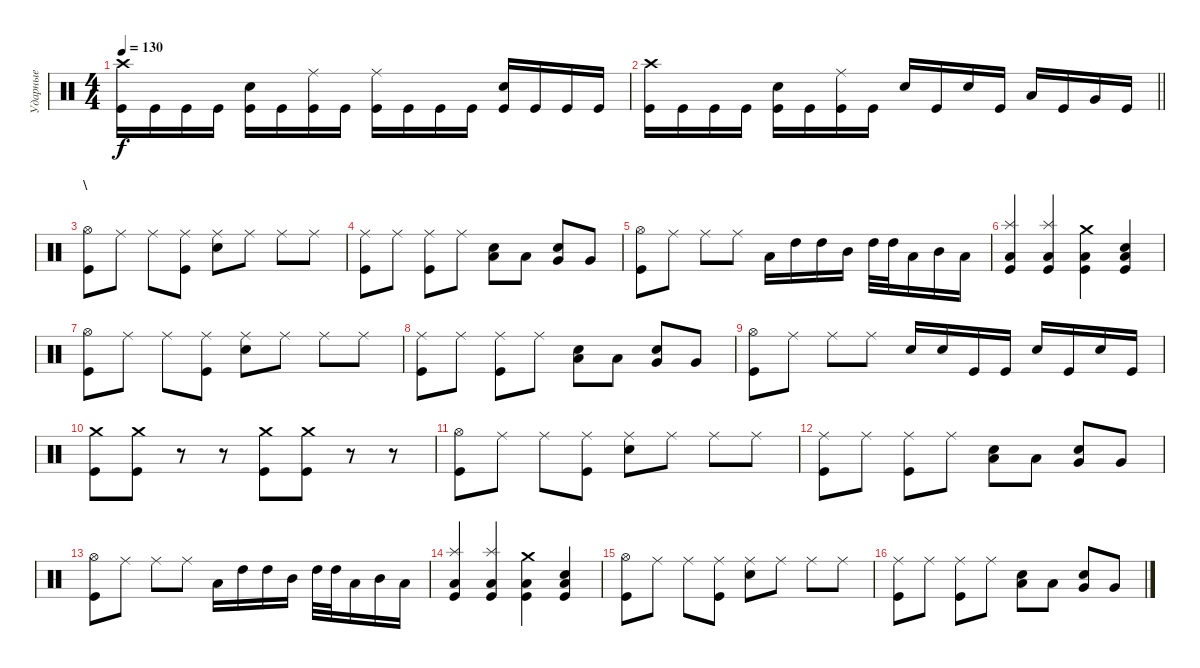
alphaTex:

\track ("Ударные" "Ударные") {instrument percussion}
\staff {score}
\articulation defaults
\ts (4 4)
\tempo 130
\clef neutral
\ks c
("Crash high (hit)" "Kick (hit)").16{dy f} "Kick (hit)".16 "Kick (hit)".16 "Kick (hit)".16 ("Electric Snare (hit)" "Kick (hit)").16 "Kick (hit)".16 ("Ride (middle)" "Kick (hit)").16 "Kick (hit)".16 ("Ride (middle)" "Kick (hit)").16 "Kick (hit)".16 "Kick (hit)".16 "Kick (hit)".16 ("Electric Snare (hit)" "Kick (hit)").16 "Kick (hit)".16 "Kick (hit)".16 "Kick (hit)".16 |
\barLineRight lightlight
("Crash high (hit)" "Kick (hit)").16 "Kick (hit)".16 "Kick (hit)".16 "Kick (hit)".16 ("Electric Snare (hit)" "Kick (hit)").16 "Kick (hit)".16 ("Ride (middle)" "Kick (hit)").16 "Kick (hit)".16 "Electric Snare (hit)".16 "Kick (hit)".16 "Electric Snare (hit)".16 "Kick (hit)".16 "Low Tom (hit)".16 "Kick (hit)".16 "Very Low Tom (hit)".16 "Kick (hit)".16 |
\section ("" "\\")
("Kick (hit)" "Hi-Hat (open)").8 "Ride (middle)".8 "Ride (middle)".8 ("Kick (hit)" "Ride (middle)").8 ("Electric Snare (hit)" "Ride (middle)").8 "Ride (middle)".8 "Ride (middle)".8 "Ride (middle)".8 |
("Kick (hit)" "Ride (middle)").8 "Ride (middle)".8 ("Kick (hit)" "Ride (middle)").8 "Ride (middle)".8 ("Low Tom (hit)" "Electric Snare (hit)").8 "Low Tom (hit)".8 ("Very Low Tom (hit)" "Electric Snare (hit)").8 "Very Low Tom (hit)".8 |
("Kick (hit)" "Hi-Hat (open)").8 "Ride (middle)".8 "Ride (middle)".8 "Ride (middle)".8 "Low Tom (hit)".16 "High Tom (hit)".16 "High Tom (hit)".16 "Mid Tom (hit)".16 "High Tom (hit)".32 "High Tom (hit)".32 "Low Tom (hit)".16 "Mid Tom (hit)".16 "Low Tom (hit)".16 |
("Splash (hit)" "Kick (hit)" "Low Floor Tom (hit)").4 ("Splash (hit)" "Kick (hit)" "Low Floor Tom (hit)").4 ("Crash medium (hit)" "Kick (hit)" "Low Floor Tom (hit)").4 ("Electric Snare (hit)" "Kick (hit)" "Low Floor Tom (hit)").4 |
("Kick (hit)" "Hi-Hat (open)").8 "Ride (middle)".8 "Ride (middle)".8 ("Kick (hit)" "Ride (middle)").8 ("Electric Snare (hit)" "Ride (middle)").8 "Ride (middle)".8 "Ride (middle)".8 "Ride (middle)".8 |
("Kick (hit)" "Ride (middle)").8 "Ride (middle)".8 ("Kick (hit)" "Ride (middle)").8 "Ride (middle)".8 ("Low Tom (hit)" "Electric Snare (hit)").8 "Low Tom (hit)".8 ("Very Low Tom (hit)" "Electric Snare (hit)").8 "Very Low Tom (hit)".8 |
("Kick (hit)" "Hi-Hat (open)").8 "Ride (middle)".8 "Ride (middle)".8 "Ride (middle)".8 "Electric Snare (hit)".16 "Electric Snare (hit)".16 "Kick (hit)".16 "Kick (hit)".16 "Electric Snare (hit)".16 "Kick (hit)".16 "Electric Snare (hit)".16 "Kick (hit)".16 |
("Crash medium (hit)" "Kick (hit)").8 ("Crash medium (hit)" "Kick (hit)").8 r.8 r.8 ("Crash medium (hit)" "Kick (hit)").8 ("Crash medium (hit)" "Kick (hit)").8 r.8 r.8 |
("Kick (hit)" "Hi-Hat (open)").8 "Ride (middle)".8 "Ride (middle)".8 ("Kick (hit)" "Ride (middle)").8 ("Electric Snare (hit)" "Ride (middle)").8 "Ride (middle)".8 "Ride (middle)".8 "Ride (middle)".8 |
("Kick (hit)" "Ride (middle)").8 "Ride (middle)".8 ("Kick (hit)" "Ride (middle)").8 "Ride (middle)".8 ("Low Tom (hit)" "Electric Snare (hit)").8 "Low Tom (hit)".8 ("Very Low Tom (hit)" "Electric Snare (hit)").8 "Very Low Tom (hit)".8 |
("Kick (hit)" "Hi-Hat (open)").8 "Ride (middle)".8 "Ride (middle)".8 "Ride (middle)".8 "Low Tom (hit)".16 "High Tom (hit)".16 "High Tom (hit)".16 "Mid Tom (hit)".16 "High Tom (hit)".32 "High Tom (hit)".32 "Low Tom (hit)".16 "Mid Tom (hit)".16 "Low Tom (hit)".16 |
("Splash (hit)" "Kick (hit)" "Low Floor Tom (hit)").4 ("Splash (hit)" "Kick (hit)" "Low Floor Tom (hit)").4 ("Crash medium (hit)" "Kick (hit)" "Low Floor Tom (hit)").4 ("Electric Snare (hit)" "Kick (hit)" "Low Floor Tom (hit)").4 |
("Kick (hit)" "Hi-Hat (open)").8 "Ride (middle)".8 "Ride (middle)".8 ("Kick (hit)" "Ride (middle)").8 ("Electric Snare (hit)" "Ride (middle)").8 "Ride (middle)".8 "Ride (middle)".8 "Ride (middle)".8 |
("Kick (hit)" "Ride (middle)").8 "Ride (middle)".8 ("Kick (hit)" "Ride (middle)").8 "Ride (middle)".8 ("Low Tom (hit)" "Electric Snare (hit)").8 "Low Tom (hit)".8 ("Very Low Tom (hit)" "Electric Snare (hit)").8 "Very Low Tom (hit)".8
